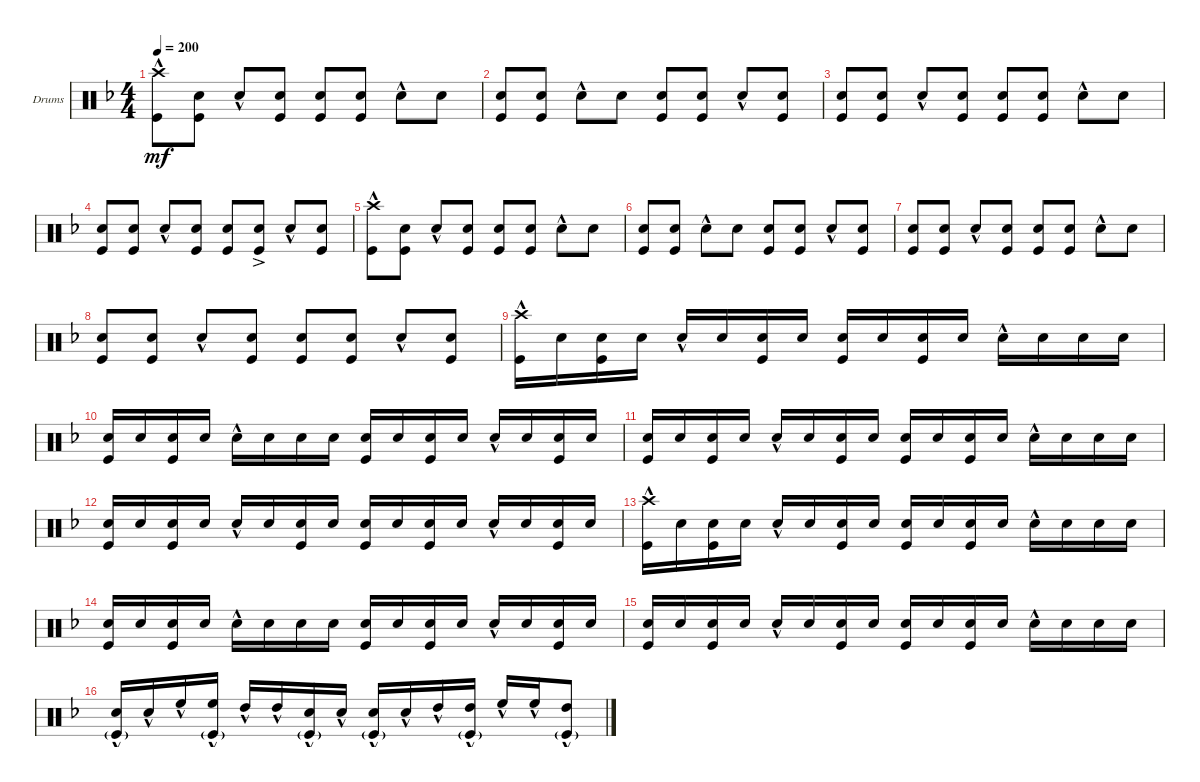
\bracketExtendMode groupsimilarinstruments
\firstSystemTrackNameOrientation horizontal
\otherSystemsTrackNameOrientation horizontal
\track ("Drumkit" "Drums") {instrument percussion}
\staff {score}
\articulation defaults
\ts (4 4)
\beaming (8 2 2 2 2)
\tempo 200
\clef neutral
\ks dminor
("Kick (hit)" "Crash high (hit)"{hac}).8{dy mf} ("Snare (hit) 2" "Kick (hit)").8 "Snare (hit) 2"{hac}.8 ("Snare (hit) 2" "Kick (hit)").8 ("Kick (hit)" "Snare (hit) 2").8 ("Kick (hit)" "Snare (hit) 2").8 "Snare (hit) 2"{hac}.8 "Snare (hit) 2".8 |
("Kick (hit)" "Snare (hit) 2").8 ("Snare (hit) 2" "Kick (hit)").8 "Snare (hit) 2"{hac}.8 "Snare (hit) 2".8 ("Kick (hit)" "Snare (hit) 2").8 ("Kick (hit)" "Snare (hit) 2").8 "Snare (hit) 2"{hac}.8 ("Snare (hit) 2" "Kick (hit)").8 |
("Kick (hit)" "Snare (hit) 2").8 ("Snare (hit) 2" "Kick (hit)").8 "Snare (hit) 2"{hac}.8 ("Snare (hit) 2" "Kick (hit)").8 ("Kick (hit)" "Snare (hit) 2").8 ("Kick (hit)" "Snare (hit) 2").8 "Snare (hit) 2"{hac}.8 "Snare (hit) 2".8 |
("Kick (hit)" "Snare (hit) 2").8 ("Snare (hit) 2" "Kick (hit)").8 "Snare (hit) 2"{hac}.8 ("Snare (hit) 2" "Kick (hit)").8 ("Kick (hit)" "Snare (hit) 2").8 ("Kick (hit)" "Snare (hit) 2"{ac}).8 "Snare (hit) 2"{hac}.8 ("Snare (hit) 2" "Kick (hit)").8 |
("Kick (hit)" "Crash high (hit)"{hac}).8 ("Snare (hit) 2" "Kick (hit)").8 "Snare (hit) 2"{hac}.8 ("Snare (hit) 2" "Kick (hit)").8 ("Kick (hit)" "Snare (hit) 2").8 ("Kick (hit)" "Snare (hit) 2").8 "Snare (hit) 2"{hac}.8 "Snare (hit) 2".8 |
("Kick (hit)" "Snare (hit) 2").8 ("Snare (hit) 2" "Kick (hit)").8 "Snare (hit) 2"{hac}.8 "Snare (hit) 2".8 ("Kick (hit)" "Snare (hit) 2").8 ("Kick (hit)" "Snare (hit) 2").8 "Snare (hit) 2"{hac}.8 ("Snare (hit) 2" "Kick (hit)").8 |
("Kick (hit)" "Snare (hit) 2").8 ("Snare (hit) 2" "Kick (hit)").8 "Snare (hit) 2"{hac}.8 ("Snare (hit) 2" "Kick (hit)").8 ("Kick (hit)" "Snare (hit) 2").8 ("Kick (hit)" "Snare (hit) 2").8 "Snare (hit) 2"{hac}.8 "Snare (hit) 2".8 |
("Kick (hit)" "Snare (hit) 2").8 ("Snare (hit) 2" "Kick (hit)").8 "Snare (hit) 2"{hac}.8 ("Snare (hit) 2" "Kick (hit)").8 ("Kick (hit)" "Snare (hit) 2").8 ("Kick (hit)" "Snare (hit) 2").8 "Snare (hit) 2"{hac}.8 ("Snare (hit) 2" "Kick (hit)").8 |
("Kick (hit)" "Crash high (hit)"{hac}).16 "Snare (hit) 2".16 ("Snare (hit) 2" "Kick (hit)").16 "Snare (hit) 2".16 "Snare (hit) 2"{hac}.16 "Snare (hit) 2".16 ("Snare (hit) 2" "Kick (hit)").16 "Snare (hit) 2".16 ("Kick (hit)" "Snare (hit) 2").16 "Snare (hit) 2".16 ("Kick (hit)" "Snare (hit) 2").16 "Snare (hit) 2".16 "Snare (hit) 2"{hac}.16 "Snare (hit) 2".16 "Snare (hit) 2".16 "Snare (hit) 2".16 |
("Kick (hit)" "Snare (hit) 2").16 "Snare (hit) 2".16 ("Snare (hit) 2" "Kick (hit)").16 "Snare (hit) 2".16 "Snare (hit) 2"{hac}.16 "Snare (hit) 2".16 "Snare (hit) 2".16 "Snare (hit) 2".16 ("Kick (hit)" "Snare (hit) 2").16 "Snare (hit) 2".16 ("Kick (hit)" "Snare (hit) 2").16 "Snare (hit) 2".16 "Snare (hit) 2"{hac}.16 "Snare (hit) 2".16 ("Snare (hit) 2" "Kick (hit)").16 "Snare (hit) 2".16 |
("Kick (hit)" "Snare (hit) 2").16 "Snare (hit) 2".16 ("Snare (hit) 2" "Kick (hit)").16 "Snare (hit) 2".16 "Snare (hit) 2"{hac}.16 "Snare (hit) 2".16 ("Snare (hit) 2" "Kick (hit)").16 "Snare (hit) 2".16 ("Kick (hit)" "Snare (hit) 2").16 "Snare (hit) 2".16 ("Kick (hit)" "Snare (hit) 2").16 "Snare (hit) 2".16 "Snare (hit) 2"{hac}.16 "Snare (hit) 2".16 "Snare (hit) 2".16 "Snare (hit) 2".16 |
("Kick (hit)" "Snare (hit) 2").16 "Snare (hit) 2".16 ("Snare (hit) 2" "Kick (hit)").16 "Snare (hit) 2".16 "Snare (hit) 2"{hac}.16 "Snare (hit) 2".16 ("Snare (hit) 2" "Kick (hit)").16 "Snare (hit) 2".16 ("Kick (hit)" "Snare (hit) 2").16 "Snare (hit) 2".16 ("Kick (hit)" "Snare (hit) 2").16 "Snare (hit) 2".16 "Snare (hit) 2"{hac}.16 "Snare (hit) 2".16 ("Snare (hit) 2" "Kick (hit)").16 "Snare (hit) 2".16 |
("Kick (hit)" "Crash high (hit)"{hac}).16 "Snare (hit) 2".16 ("Snare (hit) 2" "Kick (hit)").16 "Snare (hit) 2".16 "Snare (hit) 2"{hac}.16 "Snare (hit) 2".16 ("Snare (hit) 2" "Kick (hit)").16 "Snare (hit) 2".16 ("Kick (hit)" "Snare (hit) 2").16 "Snare (hit) 2".16 ("Kick (hit)" "Snare (hit) 2").16 "Snare (hit) 2".16 "Snare (hit) 2"{hac}.16 "Snare (hit) 2".16 "Snare (hit) 2".16 "Snare (hit) 2".16 |
("Kick (hit)" "Snare (hit) 2").16 "Snare (hit) 2".16 ("Snare (hit) 2" "Kick (hit)").16 "Snare (hit) 2".16 "Snare (hit) 2"{hac}.16 "Snare (hit) 2".16 "Snare (hit) 2".16 "Snare (hit) 2".16 ("Kick (hit)" "Snare (hit) 2").16 "Snare (hit) 2".16 ("Kick (hit)" "Snare (hit) 2").16 "Snare (hit) 2".16 "Snare (hit) 2"{hac}.16 "Snare (hit) 2".16 ("Snare (hit) 2" "Kick (hit)").16 "Snare (hit) 2".16 |
("Kick (hit)" "Snare (hit) 2").16 "Snare (hit) 2".16 ("Snare (hit) 2" "Kick (hit)").16 "Snare (hit) 2".16 "Snare (hit) 2"{hac}.16 "Snare (hit) 2".16 ("Snare (hit) 2" "Kick (hit)").16 "Snare (hit) 2".16 ("Kick (hit)" "Snare (hit) 2").16 "Snare (hit) 2".16 ("Kick (hit)" "Snare (hit) 2").16 "Snare (hit) 2".16 "Snare (hit) 2"{hac}.16 "Snare (hit) 2".16 "Snare (hit) 2".16 "Snare (hit) 2".16 |
("Snare (hit) 2"{hac} "Kick (hit)"{g}).16 "Snare (hit) 2"{hac}.16 "High Floor Tom (hit)"{hac}.16 ("High Floor Tom (hit)"{hac} "Kick (hit)"{g}).16 "High Tom (hit)"{hac}.16 "High Tom (hit)"{hac}.16 ("Snare (hit) 2"{hac} "Kick (hit)"{g}).16 "Snare (hit) 2"{hac}.16 ("Snare (hit) 2"{hac} "Kick (hit)"{g}).16 "Snare (hit) 2"{hac}.16 "High Tom (hit)"{hac}.16 ("High Tom (hit)"{hac} "Kick (hit)"{g}).16 "High Floor Tom (hit)"{hac}.16 "High Floor Tom (hit)"{hac}.16 ("Kick (hit)"{g} "High Tom (hit)"{hac}).8
